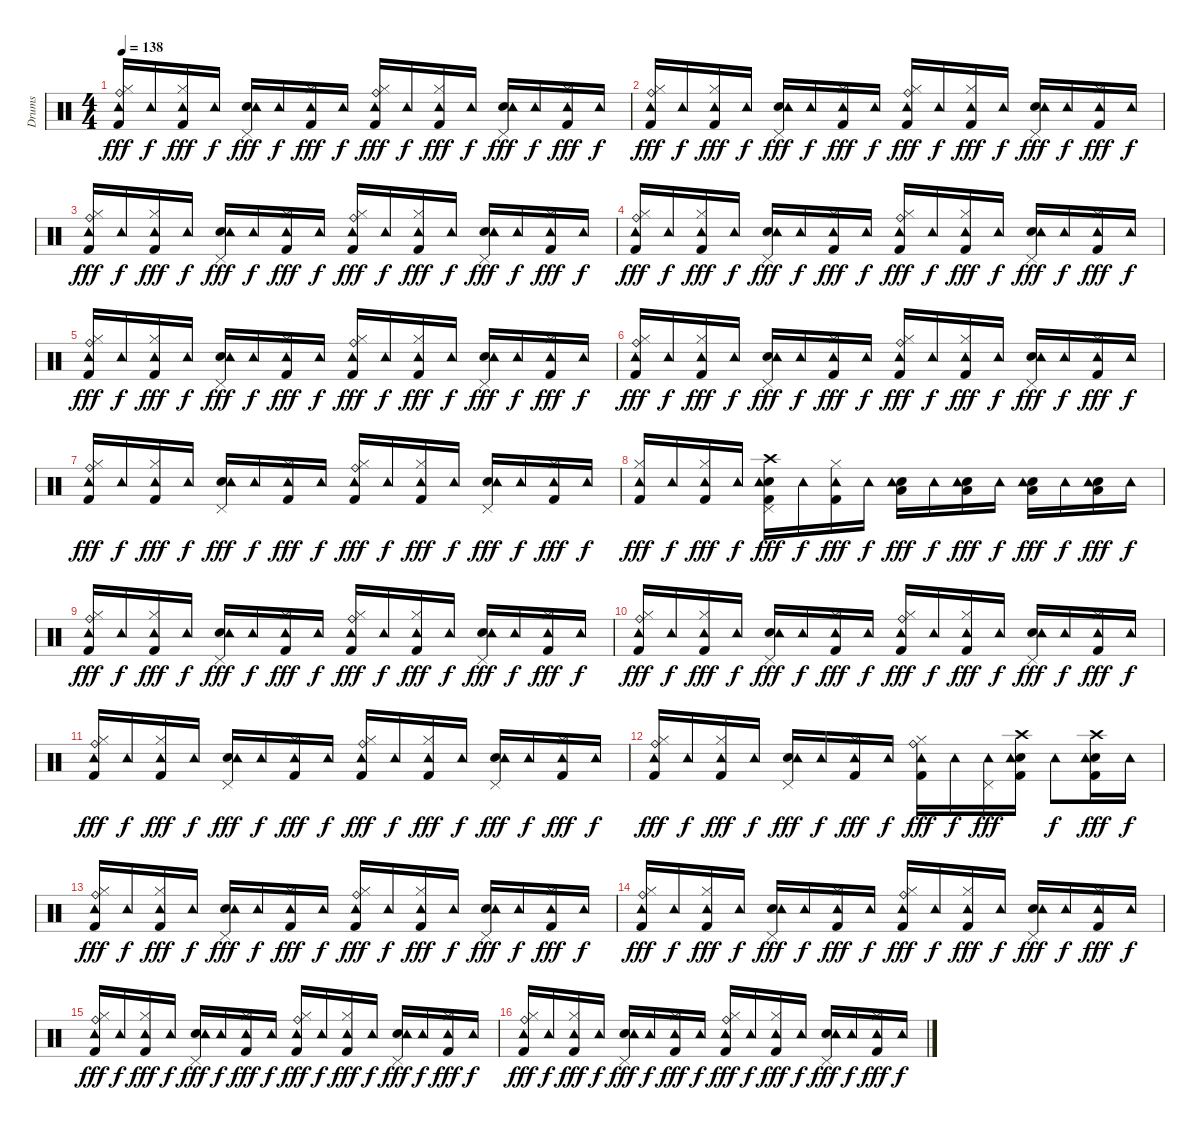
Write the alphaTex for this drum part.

\track ("Drums" "Drums") {instrument percussion}
\staff {score}
\articulation defaults
\ts (4 4)
\tempo 138
\clef neutral
\ks c
("Kick (hit) 2" "Hi-Hat (closed)" "Ride (bell)" "Tambourine (hit)").16{dy fff} "Tambourine (hit)".16{dy f} ("Kick (hit) 2" "Hi-Hat (closed)" "Tambourine (hit)").16{dy fff} "Tambourine (hit)".16{dy f} ("Snare (hit) 2" "Pedal Hi-Hat (hit)" "Tambourine (hit)").16{dy fff} "Tambourine (hit)".16{dy f} ("Kick (hit) 2" "Hi-Hat (closed)" "Tambourine (hit)").16{dy fff} "Tambourine (hit)".16{dy f} ("Kick (hit) 2" "Hi-Hat (closed)" "Ride (bell)" "Tambourine (hit)").16{dy fff} "Tambourine (hit)".16{dy f} ("Kick (hit) 2" "Hi-Hat (closed)" "Tambourine (hit)").16{dy fff} "Tambourine (hit)".16{dy f} ("Snare (hit) 2" "Pedal Hi-Hat (hit)" "Tambourine (hit)").16{dy fff} "Tambourine (hit)".16{dy f} ("Kick (hit) 2" "Hi-Hat (closed)" "Tambourine (hit)").16{dy fff} "Tambourine (hit)".16{dy f} |
("Kick (hit) 2" "Hi-Hat (closed)" "Ride (bell)" "Tambourine (hit)").16{dy fff} "Tambourine (hit)".16{dy f} ("Kick (hit) 2" "Hi-Hat (closed)" "Tambourine (hit)").16{dy fff} "Tambourine (hit)".16{dy f} ("Snare (hit) 2" "Pedal Hi-Hat (hit)" "Tambourine (hit)").16{dy fff} "Tambourine (hit)".16{dy f} ("Kick (hit) 2" "Hi-Hat (closed)" "Tambourine (hit)").16{dy fff} "Tambourine (hit)".16{dy f} ("Kick (hit) 2" "Hi-Hat (closed)" "Ride (bell)" "Tambourine (hit)").16{dy fff} "Tambourine (hit)".16{dy f} ("Kick (hit) 2" "Hi-Hat (closed)" "Tambourine (hit)").16{dy fff} "Tambourine (hit)".16{dy f} ("Snare (hit) 2" "Pedal Hi-Hat (hit)" "Tambourine (hit)").16{dy fff} "Tambourine (hit)".16{dy f} ("Kick (hit) 2" "Hi-Hat (closed)" "Tambourine (hit)").16{dy fff} "Tambourine (hit)".16{dy f} |
("Kick (hit) 2" "Hi-Hat (closed)" "Ride (bell)" "Tambourine (hit)").16{dy fff} "Tambourine (hit)".16{dy f} ("Kick (hit) 2" "Hi-Hat (closed)" "Tambourine (hit)").16{dy fff} "Tambourine (hit)".16{dy f} ("Snare (hit) 2" "Pedal Hi-Hat (hit)" "Tambourine (hit)").16{dy fff} "Tambourine (hit)".16{dy f} ("Kick (hit) 2" "Hi-Hat (closed)" "Tambourine (hit)").16{dy fff} "Tambourine (hit)".16{dy f} ("Kick (hit) 2" "Hi-Hat (closed)" "Ride (bell)" "Tambourine (hit)").16{dy fff} "Tambourine (hit)".16{dy f} ("Kick (hit) 2" "Hi-Hat (closed)" "Tambourine (hit)").16{dy fff} "Tambourine (hit)".16{dy f} ("Snare (hit) 2" "Pedal Hi-Hat (hit)" "Tambourine (hit)").16{dy fff} "Tambourine (hit)".16{dy f} ("Kick (hit) 2" "Hi-Hat (closed)" "Tambourine (hit)").16{dy fff} "Tambourine (hit)".16{dy f} |
("Kick (hit) 2" "Hi-Hat (closed)" "Ride (bell)" "Tambourine (hit)").16{dy fff} "Tambourine (hit)".16{dy f} ("Kick (hit) 2" "Hi-Hat (closed)" "Tambourine (hit)").16{dy fff} "Tambourine (hit)".16{dy f} ("Snare (hit) 2" "Pedal Hi-Hat (hit)" "Tambourine (hit)").16{dy fff} "Tambourine (hit)".16{dy f} ("Kick (hit) 2" "Hi-Hat (closed)" "Tambourine (hit)").16{dy fff} "Tambourine (hit)".16{dy f} ("Kick (hit) 2" "Hi-Hat (closed)" "Ride (bell)" "Tambourine (hit)").16{dy fff} "Tambourine (hit)".16{dy f} ("Kick (hit) 2" "Hi-Hat (closed)" "Tambourine (hit)").16{dy fff} "Tambourine (hit)".16{dy f} ("Snare (hit) 2" "Pedal Hi-Hat (hit)" "Tambourine (hit)").16{dy fff} "Tambourine (hit)".16{dy f} ("Kick (hit) 2" "Hi-Hat (closed)" "Tambourine (hit)").16{dy fff} "Tambourine (hit)".16{dy f} |
("Kick (hit) 2" "Hi-Hat (closed)" "Ride (bell)" "Tambourine (hit)").16{dy fff} "Tambourine (hit)".16{dy f} ("Kick (hit) 2" "Hi-Hat (closed)" "Tambourine (hit)").16{dy fff} "Tambourine (hit)".16{dy f} ("Snare (hit) 2" "Pedal Hi-Hat (hit)" "Tambourine (hit)").16{dy fff} "Tambourine (hit)".16{dy f} ("Kick (hit) 2" "Hi-Hat (closed)" "Tambourine (hit)").16{dy fff} "Tambourine (hit)".16{dy f} ("Kick (hit) 2" "Hi-Hat (closed)" "Ride (bell)" "Tambourine (hit)").16{dy fff} "Tambourine (hit)".16{dy f} ("Kick (hit) 2" "Hi-Hat (closed)" "Tambourine (hit)").16{dy fff} "Tambourine (hit)".16{dy f} ("Snare (hit) 2" "Pedal Hi-Hat (hit)" "Tambourine (hit)").16{dy fff} "Tambourine (hit)".16{dy f} ("Kick (hit) 2" "Hi-Hat (closed)" "Tambourine (hit)").16{dy fff} "Tambourine (hit)".16{dy f} |
("Kick (hit) 2" "Hi-Hat (closed)" "Ride (bell)" "Tambourine (hit)").16{dy fff} "Tambourine (hit)".16{dy f} ("Kick (hit) 2" "Hi-Hat (closed)" "Tambourine (hit)").16{dy fff} "Tambourine (hit)".16{dy f} ("Snare (hit) 2" "Pedal Hi-Hat (hit)" "Tambourine (hit)").16{dy fff} "Tambourine (hit)".16{dy f} ("Kick (hit) 2" "Hi-Hat (closed)" "Tambourine (hit)").16{dy fff} "Tambourine (hit)".16{dy f} ("Kick (hit) 2" "Hi-Hat (closed)" "Ride (bell)" "Tambourine (hit)").16{dy fff} "Tambourine (hit)".16{dy f} ("Kick (hit) 2" "Hi-Hat (closed)" "Tambourine (hit)").16{dy fff} "Tambourine (hit)".16{dy f} ("Snare (hit) 2" "Pedal Hi-Hat (hit)" "Tambourine (hit)").16{dy fff} "Tambourine (hit)".16{dy f} ("Kick (hit) 2" "Hi-Hat (closed)" "Tambourine (hit)").16{dy fff} "Tambourine (hit)".16{dy f} |
("Kick (hit) 2" "Hi-Hat (closed)" "Ride (bell)" "Tambourine (hit)").16{dy fff} "Tambourine (hit)".16{dy f} ("Kick (hit) 2" "Hi-Hat (closed)" "Tambourine (hit)").16{dy fff} "Tambourine (hit)".16{dy f} ("Snare (hit) 2" "Pedal Hi-Hat (hit)" "Tambourine (hit)").16{dy fff} "Tambourine (hit)".16{dy f} ("Kick (hit) 2" "Hi-Hat (closed)" "Tambourine (hit)").16{dy fff} "Tambourine (hit)".16{dy f} ("Kick (hit) 2" "Hi-Hat (closed)" "Ride (bell)" "Tambourine (hit)").16{dy fff} "Tambourine (hit)".16{dy f} ("Kick (hit) 2" "Hi-Hat (closed)" "Tambourine (hit)").16{dy fff} "Tambourine (hit)".16{dy f} ("Snare (hit) 2" "Pedal Hi-Hat (hit)" "Tambourine (hit)").16{dy fff} "Tambourine (hit)".16{dy f} ("Kick (hit) 2" "Hi-Hat (closed)" "Tambourine (hit)").16{dy fff} "Tambourine (hit)".16{dy f} |
("Kick (hit) 2" "Hi-Hat (closed)" "Tambourine (hit)").16{dy fff} "Tambourine (hit)".16{dy f} ("Kick (hit) 2" "Hi-Hat (closed)" "Tambourine (hit)").16{dy fff} "Tambourine (hit)".16{dy f} ("Kick (hit) 2" "Snare (hit) 2" "Pedal Hi-Hat (hit)" "Crash high (hit)" "Tambourine (hit)").16{dy fff} "Tambourine (hit)".16{dy f} ("Kick (hit) 2" "Hi-Hat (closed)" "Tambourine (hit)").16{dy fff} "Tambourine (hit)".16{dy f} ("Snare (hit) 2" "Low Floor Tom (hit)" "Tambourine (hit)").16{dy fff} "Tambourine (hit)".16{dy f} ("Snare (hit) 2" "Low Floor Tom (hit)" "Tambourine (hit)").16{dy fff} "Tambourine (hit)".16{dy f} ("Snare (hit) 2" "Low Floor Tom (hit)" "Tambourine (hit)").16{dy fff} "Tambourine (hit)".16{dy f} ("Snare (hit) 2" "Low Floor Tom (hit)" "Tambourine (hit)").16{dy fff} "Tambourine (hit)".16{dy f} |
("Kick (hit) 2" "Hi-Hat (closed)" "Ride (bell)" "Tambourine (hit)").16{dy fff} "Tambourine (hit)".16{dy f} ("Kick (hit) 2" "Hi-Hat (closed)" "Tambourine (hit)").16{dy fff} "Tambourine (hit)".16{dy f} ("Snare (hit) 2" "Pedal Hi-Hat (hit)" "Tambourine (hit)").16{dy fff} "Tambourine (hit)".16{dy f} ("Kick (hit) 2" "Hi-Hat (closed)" "Tambourine (hit)").16{dy fff} "Tambourine (hit)".16{dy f} ("Kick (hit) 2" "Hi-Hat (closed)" "Ride (bell)" "Tambourine (hit)").16{dy fff} "Tambourine (hit)".16{dy f} ("Kick (hit) 2" "Hi-Hat (closed)" "Tambourine (hit)").16{dy fff} "Tambourine (hit)".16{dy f} ("Snare (hit) 2" "Pedal Hi-Hat (hit)" "Tambourine (hit)").16{dy fff} "Tambourine (hit)".16{dy f} ("Kick (hit) 2" "Hi-Hat (closed)" "Tambourine (hit)").16{dy fff} "Tambourine (hit)".16{dy f} |
("Kick (hit) 2" "Hi-Hat (closed)" "Ride (bell)" "Tambourine (hit)").16{dy fff} "Tambourine (hit)".16{dy f} ("Kick (hit) 2" "Hi-Hat (closed)" "Tambourine (hit)").16{dy fff} "Tambourine (hit)".16{dy f} ("Snare (hit) 2" "Pedal Hi-Hat (hit)" "Tambourine (hit)").16{dy fff} "Tambourine (hit)".16{dy f} ("Kick (hit) 2" "Hi-Hat (closed)" "Tambourine (hit)").16{dy fff} "Tambourine (hit)".16{dy f} ("Kick (hit) 2" "Hi-Hat (closed)" "Ride (bell)" "Tambourine (hit)").16{dy fff} "Tambourine (hit)".16{dy f} ("Kick (hit) 2" "Hi-Hat (closed)" "Tambourine (hit)").16{dy fff} "Tambourine (hit)".16{dy f} ("Snare (hit) 2" "Pedal Hi-Hat (hit)" "Tambourine (hit)").16{dy fff} "Tambourine (hit)".16{dy f} ("Kick (hit) 2" "Hi-Hat (closed)" "Tambourine (hit)").16{dy fff} "Tambourine (hit)".16{dy f} |
("Kick (hit) 2" "Hi-Hat (closed)" "Ride (bell)" "Tambourine (hit)").16{dy fff} "Tambourine (hit)".16{dy f} ("Kick (hit) 2" "Hi-Hat (closed)" "Tambourine (hit)").16{dy fff} "Tambourine (hit)".16{dy f} ("Snare (hit) 2" "Pedal Hi-Hat (hit)" "Tambourine (hit)").16{dy fff} "Tambourine (hit)".16{dy f} ("Kick (hit) 2" "Hi-Hat (closed)" "Tambourine (hit)").16{dy fff} "Tambourine (hit)".16{dy f} ("Kick (hit) 2" "Hi-Hat (closed)" "Ride (bell)" "Tambourine (hit)").16{dy fff} "Tambourine (hit)".16{dy f} ("Kick (hit) 2" "Hi-Hat (closed)" "Tambourine (hit)").16{dy fff} "Tambourine (hit)".16{dy f} ("Snare (hit) 2" "Pedal Hi-Hat (hit)" "Tambourine (hit)").16{dy fff} "Tambourine (hit)".16{dy f} ("Kick (hit) 2" "Hi-Hat (closed)" "Tambourine (hit)").16{dy fff} "Tambourine (hit)".16{dy f} |
("Kick (hit) 2" "Hi-Hat (closed)" "Ride (bell)" "Tambourine (hit)").16{dy fff} "Tambourine (hit)".16{dy f} ("Kick (hit) 2" "Hi-Hat (closed)" "Tambourine (hit)").16{dy fff} "Tambourine (hit)".16{dy f} ("Snare (hit) 2" "Pedal Hi-Hat (hit)" "Tambourine (hit)").16{dy fff} "Tambourine (hit)".16{dy f} ("Kick (hit) 2" "Hi-Hat (closed)" "Tambourine (hit)").16{dy fff} "Tambourine (hit)".16{dy f} ("Kick (hit) 2" "Hi-Hat (closed)" "Ride (bell)" "Tambourine (hit)").16{dy fff} "Tambourine (hit)".16{dy f} ("Pedal Hi-Hat (hit)" "Tambourine (hit)").16{dy fff} ("Kick (hit) 2" "Snare (hit) 2" "Crash high (hit)" "Tambourine (hit)").16 "Tambourine (hit)".8{dy f} ("Kick (hit) 2" "Snare (hit) 2" "Crash high (hit)" "Tambourine (hit)").16{dy fff} "Tambourine (hit)".16{dy f} |
("Kick (hit) 2" "Hi-Hat (closed)" "Ride (bell)" "Tambourine (hit)").16{dy fff} "Tambourine (hit)".16{dy f} ("Kick (hit) 2" "Hi-Hat (closed)" "Tambourine (hit)").16{dy fff} "Tambourine (hit)".16{dy f} ("Snare (hit) 2" "Pedal Hi-Hat (hit)" "Tambourine (hit)").16{dy fff} "Tambourine (hit)".16{dy f} ("Kick (hit) 2" "Hi-Hat (closed)" "Tambourine (hit)").16{dy fff} "Tambourine (hit)".16{dy f} ("Kick (hit) 2" "Hi-Hat (closed)" "Ride (bell)" "Tambourine (hit)").16{dy fff} "Tambourine (hit)".16{dy f} ("Kick (hit) 2" "Hi-Hat (closed)" "Tambourine (hit)").16{dy fff} "Tambourine (hit)".16{dy f} ("Snare (hit) 2" "Pedal Hi-Hat (hit)" "Tambourine (hit)").16{dy fff} "Tambourine (hit)".16{dy f} ("Kick (hit) 2" "Hi-Hat (closed)" "Tambourine (hit)").16{dy fff} "Tambourine (hit)".16{dy f} |
("Kick (hit) 2" "Hi-Hat (closed)" "Ride (bell)" "Tambourine (hit)").16{dy fff} "Tambourine (hit)".16{dy f} ("Kick (hit) 2" "Hi-Hat (closed)" "Tambourine (hit)").16{dy fff} "Tambourine (hit)".16{dy f} ("Snare (hit) 2" "Pedal Hi-Hat (hit)" "Tambourine (hit)").16{dy fff} "Tambourine (hit)".16{dy f} ("Kick (hit) 2" "Hi-Hat (closed)" "Tambourine (hit)").16{dy fff} "Tambourine (hit)".16{dy f} ("Kick (hit) 2" "Hi-Hat (closed)" "Ride (bell)" "Tambourine (hit)").16{dy fff} "Tambourine (hit)".16{dy f} ("Kick (hit) 2" "Hi-Hat (closed)" "Tambourine (hit)").16{dy fff} "Tambourine (hit)".16{dy f} ("Snare (hit) 2" "Pedal Hi-Hat (hit)" "Tambourine (hit)").16{dy fff} "Tambourine (hit)".16{dy f} ("Kick (hit) 2" "Hi-Hat (closed)" "Tambourine (hit)").16{dy fff} "Tambourine (hit)".16{dy f} |
("Kick (hit) 2" "Hi-Hat (closed)" "Ride (bell)" "Tambourine (hit)").16{dy fff} "Tambourine (hit)".16{dy f} ("Kick (hit) 2" "Hi-Hat (closed)" "Tambourine (hit)").16{dy fff} "Tambourine (hit)".16{dy f} ("Snare (hit) 2" "Pedal Hi-Hat (hit)" "Tambourine (hit)").16{dy fff} "Tambourine (hit)".16{dy f} ("Kick (hit) 2" "Hi-Hat (closed)" "Tambourine (hit)").16{dy fff} "Tambourine (hit)".16{dy f} ("Kick (hit) 2" "Hi-Hat (closed)" "Ride (bell)" "Tambourine (hit)").16{dy fff} "Tambourine (hit)".16{dy f} ("Kick (hit) 2" "Hi-Hat (closed)" "Tambourine (hit)").16{dy fff} "Tambourine (hit)".16{dy f} ("Snare (hit) 2" "Pedal Hi-Hat (hit)" "Tambourine (hit)").16{dy fff} "Tambourine (hit)".16{dy f} ("Kick (hit) 2" "Hi-Hat (closed)" "Tambourine (hit)").16{dy fff} "Tambourine (hit)".16{dy f} |
("Kick (hit) 2" "Hi-Hat (closed)" "Ride (bell)" "Tambourine (hit)").16{dy fff} "Tambourine (hit)".16{dy f} ("Kick (hit) 2" "Hi-Hat (closed)" "Tambourine (hit)").16{dy fff} "Tambourine (hit)".16{dy f} ("Snare (hit) 2" "Pedal Hi-Hat (hit)" "Tambourine (hit)").16{dy fff} "Tambourine (hit)".16{dy f} ("Kick (hit) 2" "Hi-Hat (closed)" "Tambourine (hit)").16{dy fff} "Tambourine (hit)".16{dy f} ("Kick (hit) 2" "Hi-Hat (closed)" "Ride (bell)" "Tambourine (hit)").16{dy fff} "Tambourine (hit)".16{dy f} ("Kick (hit) 2" "Hi-Hat (closed)" "Tambourine (hit)").16{dy fff} "Tambourine (hit)".16{dy f} ("Snare (hit) 2" "Pedal Hi-Hat (hit)" "Tambourine (hit)").16{dy fff} "Tambourine (hit)".16{dy f} ("Kick (hit) 2" "Hi-Hat (closed)" "Tambourine (hit)").16{dy fff} "Tambourine (hit)".16{dy f}
